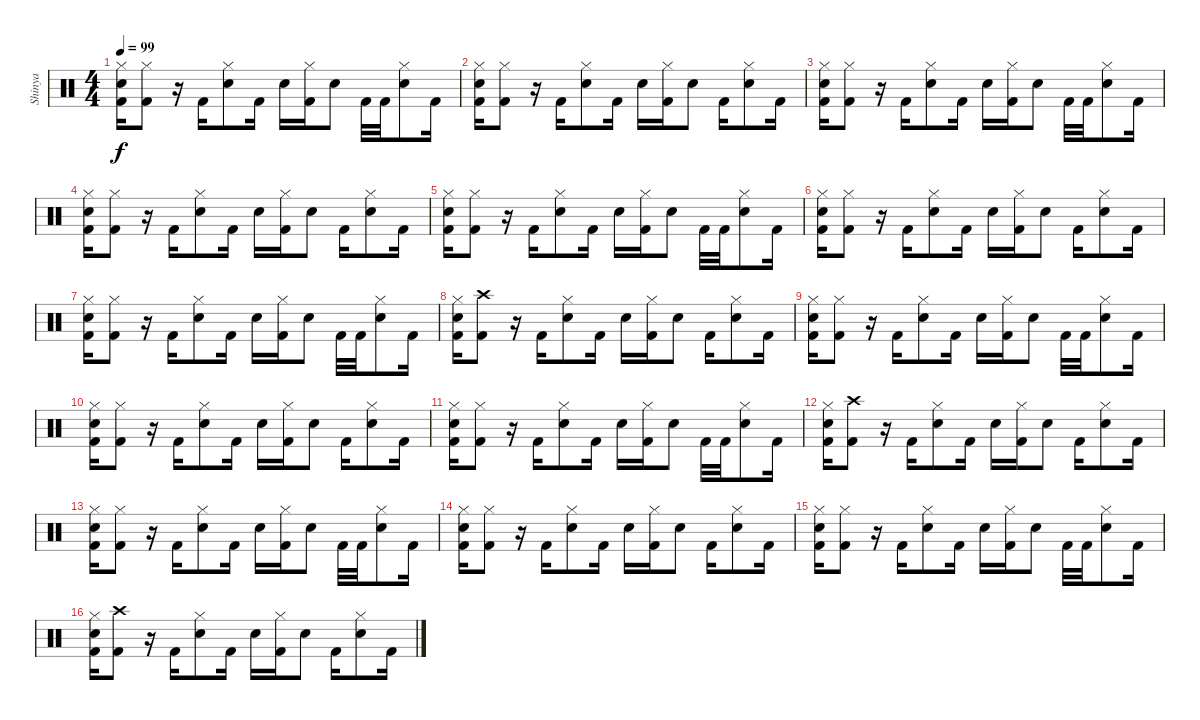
\track ("Shinya" "Shinya") {instrument percussion}
\staff {score}
\articulation defaults
\ts (4 4)
\tempo 99
\clef neutral
\ks c
("Hi-Hat (closed)" "Snare (hit) 2" "Kick (hit) 2").16{dy f} ("Hi-Hat (closed)" "Kick (hit) 2").8 r.16 "Kick (hit) 2".16 ("Hi-Hat (closed)" "Snare (hit) 2").8 "Kick (hit) 2".16 "Snare (hit) 2".16 ("Hi-Hat (closed)" "Kick (hit) 2").16 "Snare (hit) 2".8 "Kick (hit) 2".32 "Kick (hit) 2".32 ("Hi-Hat (closed)" "Snare (hit) 2").8 "Kick (hit) 2".16 |
("Hi-Hat (closed)" "Snare (hit) 2" "Kick (hit) 2").16 ("Hi-Hat (closed)" "Kick (hit) 2").8 r.16 "Kick (hit) 2".16 ("Hi-Hat (closed)" "Snare (hit) 2").8 "Kick (hit) 2".16 "Snare (hit) 2".16 ("Hi-Hat (closed)" "Kick (hit) 2").16 "Snare (hit) 2".8 "Kick (hit) 2".16 ("Hi-Hat (closed)" "Snare (hit) 2").8 "Kick (hit) 2".16 |
("Hi-Hat (closed)" "Snare (hit) 2" "Kick (hit) 2").16 ("Hi-Hat (closed)" "Kick (hit) 2").8 r.16 "Kick (hit) 2".16 ("Hi-Hat (closed)" "Snare (hit) 2").8 "Kick (hit) 2".16 "Snare (hit) 2".16 ("Hi-Hat (closed)" "Kick (hit) 2").16 "Snare (hit) 2".8 "Kick (hit) 2".32 "Kick (hit) 2".32 ("Hi-Hat (closed)" "Snare (hit) 2").8 "Kick (hit) 2".16 |
("Hi-Hat (closed)" "Snare (hit) 2" "Kick (hit) 2").16 ("Hi-Hat (closed)" "Kick (hit) 2").8 r.16 "Kick (hit) 2".16 ("Hi-Hat (closed)" "Snare (hit) 2").8 "Kick (hit) 2".16 "Snare (hit) 2".16 ("Hi-Hat (closed)" "Kick (hit) 2").16 "Snare (hit) 2".8 "Kick (hit) 2".16 ("Hi-Hat (closed)" "Snare (hit) 2").8 "Kick (hit) 2".16 |
("Hi-Hat (closed)" "Snare (hit) 2" "Kick (hit) 2").16 ("Hi-Hat (closed)" "Kick (hit) 2").8 r.16 "Kick (hit) 2".16 ("Hi-Hat (closed)" "Snare (hit) 2").8 "Kick (hit) 2".16 "Snare (hit) 2".16 ("Hi-Hat (closed)" "Kick (hit) 2").16 "Snare (hit) 2".8 "Kick (hit) 2".32 "Kick (hit) 2".32 ("Hi-Hat (closed)" "Snare (hit) 2").8 "Kick (hit) 2".16 |
("Hi-Hat (closed)" "Snare (hit) 2" "Kick (hit) 2").16 ("Hi-Hat (closed)" "Kick (hit) 2").8 r.16 "Kick (hit) 2".16 ("Hi-Hat (closed)" "Snare (hit) 2").8 "Kick (hit) 2".16 "Snare (hit) 2".16 ("Hi-Hat (closed)" "Kick (hit) 2").16 "Snare (hit) 2".8 "Kick (hit) 2".16 ("Hi-Hat (closed)" "Snare (hit) 2").8 "Kick (hit) 2".16 |
("Hi-Hat (closed)" "Snare (hit) 2" "Kick (hit) 2").16 ("Hi-Hat (closed)" "Kick (hit) 2").8 r.16 "Kick (hit) 2".16 ("Hi-Hat (closed)" "Snare (hit) 2").8 "Kick (hit) 2".16 "Snare (hit) 2".16 ("Hi-Hat (closed)" "Kick (hit) 2").16 "Snare (hit) 2".8 "Kick (hit) 2".32 "Kick (hit) 2".32 ("Hi-Hat (closed)" "Snare (hit) 2").8 "Kick (hit) 2".16 |
("Hi-Hat (closed)" "Snare (hit) 2" "Kick (hit) 2").16 ("Crash high (hit)" "Kick (hit) 2").8 r.16 "Kick (hit) 2".16 ("Hi-Hat (closed)" "Snare (hit) 2").8 "Kick (hit) 2".16 "Snare (hit) 2".16 ("Hi-Hat (closed)" "Kick (hit) 2").16 "Snare (hit) 2".8 "Kick (hit) 2".16 ("Hi-Hat (closed)" "Snare (hit) 2").8 "Kick (hit) 2".16 |
("Hi-Hat (closed)" "Snare (hit) 2" "Kick (hit) 2").16 ("Hi-Hat (closed)" "Kick (hit) 2").8 r.16 "Kick (hit) 2".16 ("Hi-Hat (closed)" "Snare (hit) 2").8 "Kick (hit) 2".16 "Snare (hit) 2".16 ("Hi-Hat (closed)" "Kick (hit) 2").16 "Snare (hit) 2".8 "Kick (hit) 2".32 "Kick (hit) 2".32 ("Hi-Hat (closed)" "Snare (hit) 2").8 "Kick (hit) 2".16 |
("Hi-Hat (closed)" "Snare (hit) 2" "Kick (hit) 2").16 ("Hi-Hat (closed)" "Kick (hit) 2").8 r.16 "Kick (hit) 2".16 ("Hi-Hat (closed)" "Snare (hit) 2").8 "Kick (hit) 2".16 "Snare (hit) 2".16 ("Hi-Hat (closed)" "Kick (hit) 2").16 "Snare (hit) 2".8 "Kick (hit) 2".16 ("Hi-Hat (closed)" "Snare (hit) 2").8 "Kick (hit) 2".16 |
("Hi-Hat (closed)" "Snare (hit) 2" "Kick (hit) 2").16 ("Hi-Hat (closed)" "Kick (hit) 2").8 r.16 "Kick (hit) 2".16 ("Hi-Hat (closed)" "Snare (hit) 2").8 "Kick (hit) 2".16 "Snare (hit) 2".16 ("Hi-Hat (closed)" "Kick (hit) 2").16 "Snare (hit) 2".8 "Kick (hit) 2".32 "Kick (hit) 2".32 ("Hi-Hat (closed)" "Snare (hit) 2").8 "Kick (hit) 2".16 |
("Hi-Hat (closed)" "Snare (hit) 2" "Kick (hit) 2").16 ("Crash high (hit)" "Kick (hit) 2").8 r.16 "Kick (hit) 2".16 ("Hi-Hat (closed)" "Snare (hit) 2").8 "Kick (hit) 2".16 "Snare (hit) 2".16 ("Hi-Hat (closed)" "Kick (hit) 2").16 "Snare (hit) 2".8 "Kick (hit) 2".16 ("Hi-Hat (closed)" "Snare (hit) 2").8 "Kick (hit) 2".16 |
("Hi-Hat (closed)" "Snare (hit) 2" "Kick (hit) 2").16 ("Hi-Hat (closed)" "Kick (hit) 2").8 r.16 "Kick (hit) 2".16 ("Hi-Hat (closed)" "Snare (hit) 2").8 "Kick (hit) 2".16 "Snare (hit) 2".16 ("Hi-Hat (closed)" "Kick (hit) 2").16 "Snare (hit) 2".8 "Kick (hit) 2".32 "Kick (hit) 2".32 ("Hi-Hat (closed)" "Snare (hit) 2").8 "Kick (hit) 2".16 |
("Hi-Hat (closed)" "Snare (hit) 2" "Kick (hit) 2").16 ("Hi-Hat (closed)" "Kick (hit) 2").8 r.16 "Kick (hit) 2".16 ("Hi-Hat (closed)" "Snare (hit) 2").8 "Kick (hit) 2".16 "Snare (hit) 2".16 ("Hi-Hat (closed)" "Kick (hit) 2").16 "Snare (hit) 2".8 "Kick (hit) 2".16 ("Hi-Hat (closed)" "Snare (hit) 2").8 "Kick (hit) 2".16 |
("Hi-Hat (closed)" "Snare (hit) 2" "Kick (hit) 2").16 ("Hi-Hat (closed)" "Kick (hit) 2").8 r.16 "Kick (hit) 2".16 ("Hi-Hat (closed)" "Snare (hit) 2").8 "Kick (hit) 2".16 "Snare (hit) 2".16 ("Hi-Hat (closed)" "Kick (hit) 2").16 "Snare (hit) 2".8 "Kick (hit) 2".32 "Kick (hit) 2".32 ("Hi-Hat (closed)" "Snare (hit) 2").8 "Kick (hit) 2".16 |
("Hi-Hat (closed)" "Snare (hit) 2" "Kick (hit) 2").16 ("Crash high (hit)" "Kick (hit) 2").8 r.16 "Kick (hit) 2".16 ("Hi-Hat (closed)" "Snare (hit) 2").8 "Kick (hit) 2".16 "Snare (hit) 2".16 ("Hi-Hat (closed)" "Kick (hit) 2").16 "Snare (hit) 2".8 "Kick (hit) 2".16 ("Hi-Hat (closed)" "Snare (hit) 2").8 "Kick (hit) 2".16
